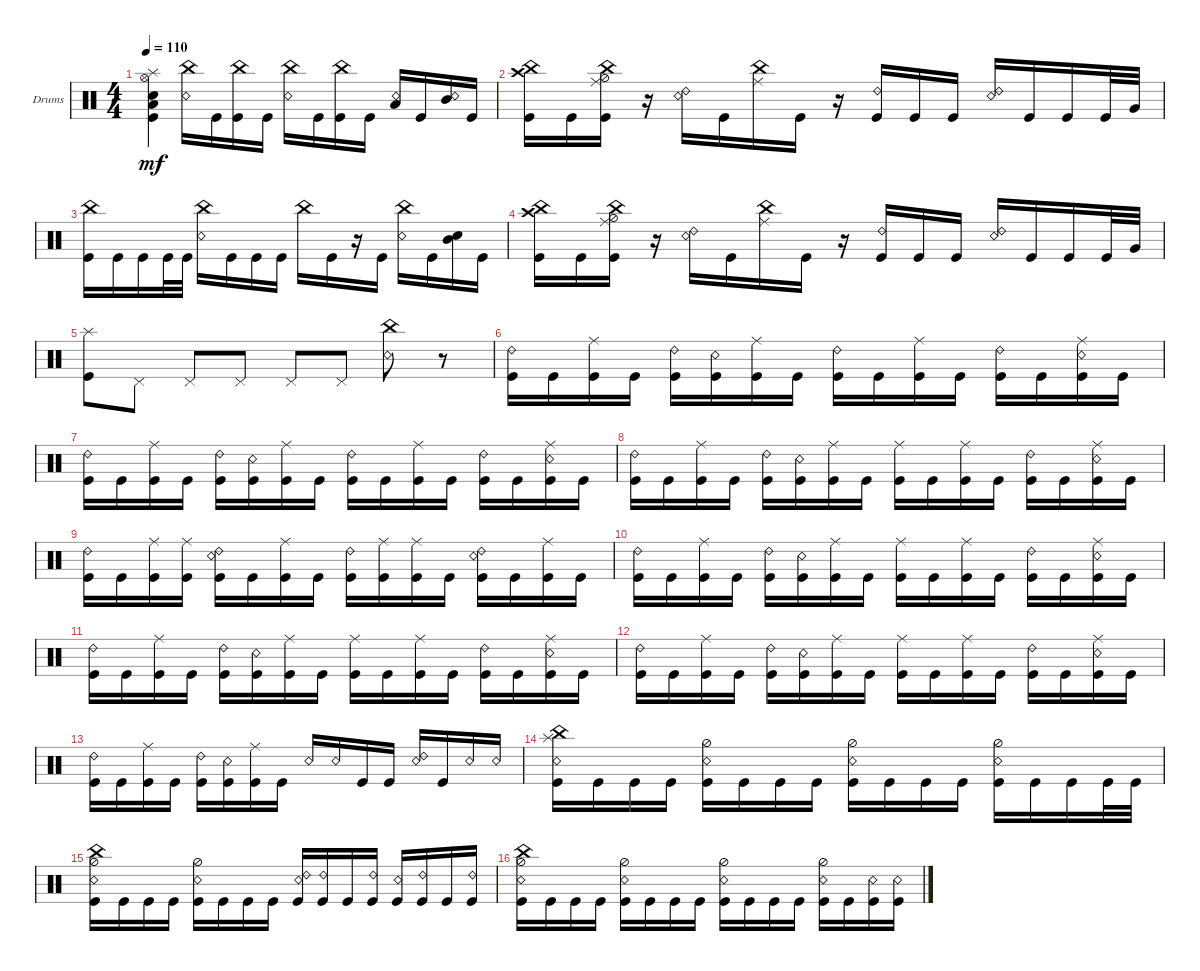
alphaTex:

\defaultSystemsLayout 4
\bracketExtendMode groupsimilarinstruments
\firstSystemTrackNameOrientation horizontal
\otherSystemsTrackNameOrientation horizontal
\track ("Drumkit" "Drums") {instrument percussion}
\staff {score}
\articulation defaults
\ts (4 4)
\scale
0.308003
\tempo 110
\accidentals auto
\clef neutral
\ottava regular
\simile none
\ks c
("Kick (hit)" "Snare (hit) 2" "Low Tom (hit)" "Splash (hit)" "Hi-Hat (open)").4{dy mf} ("Snare (rim shot)" "China (hit)").16 "Kick (hit)".16 ("China (hit)" "Kick (hit)").16 "Kick (hit)".16 ("Snare (rim shot)" "China (hit)").16 "Kick (hit)".16 ("China (hit)" "Kick (hit)").16 "Kick (hit)".16 ("Snare (rim shot)" "Low Tom (hit)").16 "Kick (hit)".16 ("Mid Tom (hit)" "Snare (rim shot)").16 "Kick (hit)".16 |
("Crash high (hit)" "China (hit)" "Kick (hit)").16 "Kick (hit)".16 ("Kick (hit)" "Ride (middle)" "Hi-Hat (half)" "China (hit)").16 r.16 ("Snare (rim shot)" "Ride (bell) 2").16 "Kick (hit)".16 ("Ride (middle)" "China (hit)").16 "Kick (hit)".16 r.16 ("Kick (hit)" "Ride (bell) 2").16 "Kick (hit)".16 "Kick (hit)".16 ("Snare (rim shot)" "Ride (bell) 2").16 "Kick (hit)".16 "Kick (hit)".16 "Kick (hit)".32 "Very Low Tom (hit)".32 |
("China (hit)" "Kick (hit)").16 "Kick (hit)".16 "Kick (hit)".16 "Kick (hit)".32 "Kick (hit)".32 ("Snare (rim shot)" "China (hit)").16 "Kick (hit)".16 "Kick (hit)".16 "Kick (hit)".16 "China (hit)".16 "Kick (hit)".16 r.16 "Kick (hit)".16 ("Snare (rim shot)" "China (hit)").16 "Kick (hit)".16 ("Mid Tom (hit)" "Snare (hit) 2").16 "Kick (hit)".16 |
\scale
0.431918 ("Crash high (hit)" "China (hit)" "Kick (hit)").16 "Kick (hit)".16 ("Kick (hit)" "Ride (middle)" "Hi-Hat (half)" "China (hit)").16 r.16 ("Snare (rim shot)" "Ride (bell) 2").16 "Kick (hit)".16 ("Ride (middle)" "China (hit)").16 "Kick (hit)".16 r.16 ("Kick (hit)" "Ride (bell) 2").16 "Kick (hit)".16 "Kick (hit)".16 ("Snare (rim shot)" "Ride (bell) 2").16 "Kick (hit)".16 "Kick (hit)".16 "Kick (hit)".32 "Very Low Tom (hit)".32 |
\scale
0.181552 ("Splash (hit)" "Kick (hit)").8 "Pedal Hi-Hat (hit)".8 "Pedal Hi-Hat (hit)".8 "Pedal Hi-Hat (hit)".8 "Pedal Hi-Hat (hit)".8 "Pedal Hi-Hat (hit)".8 ("Snare (rim shot)" "China (hit)").8 r.8 |
\scale
0.38653 ("Kick (hit)" "Ride (bell) 2").16 "Kick (hit)".16 ("Kick (hit)" "Ride (middle)").16 "Kick (hit)".16 ("Kick (hit)" "Ride (bell) 2").16 ("Kick (hit)" "Snare (rim shot)").16 ("Kick (hit)" "Ride (middle)").16 "Kick (hit)".16 ("Kick (hit)" "Ride (bell) 2").16 "Kick (hit)".16 ("Kick (hit)" "Ride (middle)").16 "Kick (hit)".16 ("Kick (hit)" "Ride (bell) 2").16 "Kick (hit)".16 ("Kick (hit)" "Ride (middle)" "Snare (rim shot)").16 "Kick (hit)".16 |
("Kick (hit)" "Ride (bell) 2").16 "Kick (hit)".16 ("Kick (hit)" "Ride (middle)").16 "Kick (hit)".16 ("Kick (hit)" "Ride (bell) 2").16 ("Kick (hit)" "Snare (rim shot)").16 ("Kick (hit)" "Ride (middle)").16 "Kick (hit)".16 ("Kick (hit)" "Ride (bell) 2").16 "Kick (hit)".16 ("Kick (hit)" "Ride (middle)").16 "Kick (hit)".16 ("Kick (hit)" "Ride (bell) 2").16 "Kick (hit)".16 ("Kick (hit)" "Ride (middle)" "Snare (rim shot)").16 "Kick (hit)".16 |
("Kick (hit)" "Ride (bell) 2").16 "Kick (hit)".16 ("Kick (hit)" "Ride (middle)").16 "Kick (hit)".16 ("Kick (hit)" "Ride (bell) 2").16 ("Kick (hit)" "Snare (rim shot)").16 ("Kick (hit)" "Ride (middle)").16 "Kick (hit)".16 ("Kick (hit)" "Ride (middle)").16 "Kick (hit)".16 ("Kick (hit)" "Ride (middle)").16 "Kick (hit)".16 ("Kick (hit)" "Ride (bell) 2").16 "Kick (hit)".16 ("Kick (hit)" "Ride (middle)" "Snare (rim shot)").16 "Kick (hit)".16 |
\scale
0.527728 ("Kick (hit)" "Ride (bell) 2").16 "Kick (hit)".16 ("Kick (hit)" "Ride (middle)").16 ("Kick (hit)" "Ride (middle)").16 ("Kick (hit)" "Ride (bell) 2" "Snare (rim shot)").16 "Kick (hit)".16 ("Kick (hit)" "Ride (middle)").16 "Kick (hit)".16 ("Kick (hit)" "Ride (bell) 2").16 ("Kick (hit)" "Ride (middle)").16 ("Kick (hit)" "Ride (middle)").16 "Kick (hit)".16 ("Kick (hit)" "Ride (bell) 2" "Snare (rim shot)").16 "Kick (hit)".16 ("Kick (hit)" "Ride (middle)").16 "Kick (hit)".16 |
\scale
0.472272 ("Kick (hit)" "Ride (bell) 2").16 "Kick (hit)".16 ("Kick (hit)" "Ride (middle)").16 "Kick (hit)".16 ("Kick (hit)" "Ride (bell) 2").16 ("Kick (hit)" "Snare (rim shot)").16 ("Kick (hit)" "Ride (middle)").16 "Kick (hit)".16 ("Kick (hit)" "Ride (middle)").16 "Kick (hit)".16 ("Kick (hit)" "Ride (middle)").16 "Kick (hit)".16 ("Kick (hit)" "Ride (bell) 2").16 "Kick (hit)".16 ("Kick (hit)" "Ride (middle)" "Snare (rim shot)").16 "Kick (hit)".16 |
("Kick (hit)" "Ride (bell) 2").16 "Kick (hit)".16 ("Kick (hit)" "Ride (middle)").16 "Kick (hit)".16 ("Kick (hit)" "Ride (bell) 2").16 ("Kick (hit)" "Snare (rim shot)").16 ("Kick (hit)" "Ride (middle)").16 "Kick (hit)".16 ("Kick (hit)" "Ride (middle)").16 "Kick (hit)".16 ("Kick (hit)" "Ride (middle)").16 "Kick (hit)".16 ("Kick (hit)" "Ride (bell) 2").16 "Kick (hit)".16 ("Kick (hit)" "Ride (middle)" "Snare (rim shot)").16 "Kick (hit)".16 |
("Kick (hit)" "Ride (bell) 2").16 "Kick (hit)".16 ("Kick (hit)" "Ride (middle)").16 "Kick (hit)".16 ("Kick (hit)" "Ride (bell) 2").16 ("Kick (hit)" "Snare (rim shot)").16 ("Kick (hit)" "Ride (middle)").16 "Kick (hit)".16 ("Kick (hit)" "Ride (middle)").16 "Kick (hit)".16 ("Kick (hit)" "Ride (middle)").16 "Kick (hit)".16 ("Kick (hit)" "Ride (bell) 2").16 "Kick (hit)".16 ("Kick (hit)" "Ride (middle)" "Snare (rim shot)").16 "Kick (hit)".16 |
("Kick (hit)" "Ride (bell) 2").16 "Kick (hit)".16 ("Kick (hit)" "Ride (middle)").16 "Kick (hit)".16 ("Kick (hit)" "Ride (bell) 2").16 ("Kick (hit)" "Snare (rim shot)").16 ("Kick (hit)" "Ride (middle)").16 "Kick (hit)".16 "Snare (rim shot)".16 "Snare (rim shot)".16 "Kick (hit)".16 "Kick (hit)".16 ("Ride (bell) 2" "Snare (rim shot)").16 "Kick (hit)".16 "Snare (rim shot)".16 "Snare (rim shot)".16 |
("Kick (hit)" "Snare (rim shot)" "China (hit)" "Splash (hit)").16 "Kick (hit)".16 "Kick (hit)".16 "Kick (hit)".16 ("Kick (hit)" "Snare (rim shot)" "Hi-Hat (half)").16 "Kick (hit)".16 "Kick (hit)".16 "Kick (hit)".16 ("Kick (hit)" "Snare (rim shot)" "Hi-Hat (half)").16 "Kick (hit)".16 "Kick (hit)".16 "Kick (hit)".16 ("Kick (hit)" "Snare (rim shot)" "Hi-Hat (half)").16 "Kick (hit)".16 "Kick (hit)".16 "Kick (hit)".32 "Kick (hit)".32 |
\scale
0.527728 ("Kick (hit)" "Snare (rim shot)" "Hi-Hat (half)" "China (hit)").16 "Kick (hit)".16 "Kick (hit)".16 "Kick (hit)".16 ("Kick (hit)" "Snare (rim shot)" "Hi-Hat (half)").16 "Kick (hit)".16 "Kick (hit)".16 "Kick (hit)".16 ("Kick (hit)" "Snare (rim shot)" "Ride (bell) 2").16 ("Kick (hit)" "Ride (bell) 2").16 "Kick (hit)".16 ("Kick (hit)" "Ride (bell) 2").16 ("Kick (hit)" "Snare (rim shot)").16 ("Kick (hit)" "Ride (bell) 2").16 "Kick (hit)".16 ("Kick (hit)" "Ride (bell) 2").16 |
\scale
0.472272 ("Kick (hit)" "Snare (rim shot)" "Hi-Hat (half)" "China (hit)").16 "Kick (hit)".16 "Kick (hit)".16 "Kick (hit)".16 ("Kick (hit)" "Snare (rim shot)" "Hi-Hat (half)").16 "Kick (hit)".16 "Kick (hit)".16 "Kick (hit)".16 ("Kick (hit)" "Snare (rim shot)" "Hi-Hat (half)").16 "Kick (hit)".16 "Kick (hit)".16 "Kick (hit)".16 ("Kick (hit)" "Snare (rim shot)" "Hi-Hat (half)").16 "Kick (hit)".16 ("Kick (hit)" "Snare (rim shot)").16 ("Kick (hit)" "Snare (rim shot)").16
